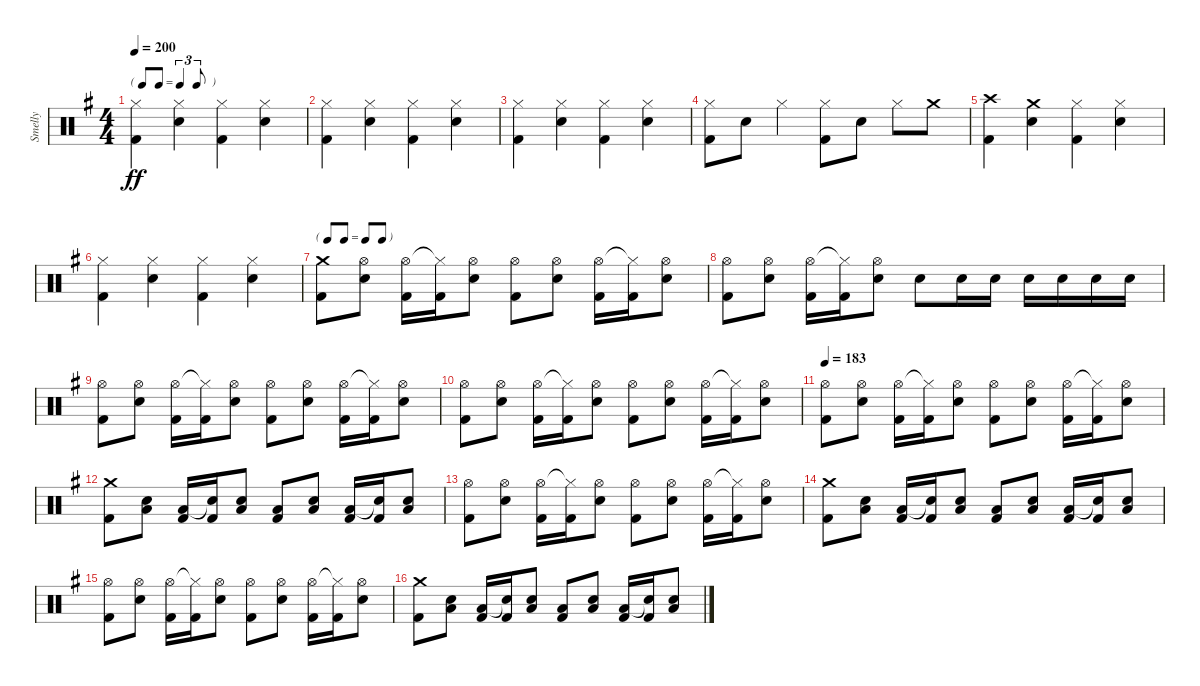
\track ("Smelly" "Smelly") {instrument percussion}
\staff {score}
\articulation defaults
\ts (4 4)
\tf triplet8th
\tempo 200
\clef neutral
\ks eminor
("Hi-Hat (closed)" "Kick (hit) 2").4{dy ff} ("Hi-Hat (closed)" "Electric Snare (hit)").4 ("Hi-Hat (closed)" "Kick (hit) 2").4 ("Hi-Hat (closed)" "Electric Snare (hit)").4 |
("Hi-Hat (closed)" "Kick (hit) 2").4 ("Hi-Hat (closed)" "Electric Snare (hit)").4 ("Hi-Hat (closed)" "Kick (hit) 2").4 ("Hi-Hat (closed)" "Electric Snare (hit)").4 |
("Hi-Hat (closed)" "Kick (hit) 2").4 ("Hi-Hat (closed)" "Electric Snare (hit)").4 ("Hi-Hat (closed)" "Kick (hit) 2").4 ("Hi-Hat (closed)" "Electric Snare (hit)").4 |
("Hi-Hat (closed)" "Kick (hit) 2").8 "Electric Snare (hit)".8 "Hi-Hat (closed)".4 ("Hi-Hat (closed)" "Kick (hit) 2").8 "Electric Snare (hit)".8 "Hi-Hat (closed)".8 "Crash medium (hit)".8 |
("Crash high (hit)" "Kick (hit) 2").4 ("Crash medium (hit)" "Electric Snare (hit)").4 ("Hi-Hat (closed)" "Kick (hit) 2").4 ("Hi-Hat (closed)" "Electric Snare (hit)").4 |
("Hi-Hat (closed)" "Kick (hit) 2").4 ("Hi-Hat (closed)" "Electric Snare (hit)").4 ("Hi-Hat (closed)" "Kick (hit) 2").4 ("Hi-Hat (closed)" "Electric Snare (hit)").4 |
\tf none
("Crash medium (hit)" "Kick (hit) 2").8 ("Hi-Hat (open)" "Electric Snare (hit)").8 ("Hi-Hat (open)" "Kick (hit) 2").16 ("Hi-Hat (closed)"{t} "Kick (hit) 2").16 ("Hi-Hat (open)" "Electric Snare (hit)").8 ("Hi-Hat (open)" "Kick (hit) 2").8 ("Hi-Hat (open)" "Electric Snare (hit)").8 ("Hi-Hat (open)" "Kick (hit) 2").16 ("Hi-Hat (closed)"{t} "Kick (hit) 2").16 ("Hi-Hat (open)" "Electric Snare (hit)").8 |
("Hi-Hat (open)" "Kick (hit) 2").8 ("Hi-Hat (open)" "Electric Snare (hit)").8 ("Hi-Hat (open)" "Kick (hit) 2").16 ("Hi-Hat (closed)"{t} "Kick (hit) 2").16 ("Hi-Hat (open)" "Electric Snare (hit)").8 "Electric Snare (hit)".8 "Electric Snare (hit)".16 "Electric Snare (hit)".16 "Electric Snare (hit)".16 "Electric Snare (hit)".16 "Electric Snare (hit)".16 "Electric Snare (hit)".16 |
("Hi-Hat (open)" "Kick (hit) 2").8 ("Hi-Hat (open)" "Electric Snare (hit)").8 ("Hi-Hat (open)" "Kick (hit) 2").16 ("Hi-Hat (closed)"{t} "Kick (hit) 2").16 ("Hi-Hat (open)" "Electric Snare (hit)").8 ("Hi-Hat (open)" "Kick (hit) 2").8 ("Hi-Hat (open)" "Electric Snare (hit)").8 ("Hi-Hat (open)" "Kick (hit) 2").16 ("Hi-Hat (closed)"{t} "Kick (hit) 2").16 ("Hi-Hat (open)" "Electric Snare (hit)").8 |
("Hi-Hat (open)" "Kick (hit) 2").8 ("Hi-Hat (open)" "Electric Snare (hit)").8 ("Hi-Hat (open)" "Kick (hit) 2").16 ("Hi-Hat (closed)"{t} "Kick (hit) 2").16 ("Hi-Hat (open)" "Electric Snare (hit)").8 ("Hi-Hat (open)" "Kick (hit) 2").8 ("Hi-Hat (open)" "Electric Snare (hit)").8 ("Hi-Hat (open)" "Kick (hit) 2").16 ("Hi-Hat (closed)"{t} "Kick (hit) 2").16 ("Hi-Hat (open)" "Electric Snare (hit)").8 |
\tempo 183
("Hi-Hat (open)" "Kick (hit) 2").8 ("Hi-Hat (open)" "Electric Snare (hit)").8 ("Hi-Hat (open)" "Kick (hit) 2").16 ("Hi-Hat (closed)"{t} "Kick (hit) 2").16 ("Hi-Hat (open)" "Electric Snare (hit)").8 ("Hi-Hat (open)" "Kick (hit) 2").8 ("Hi-Hat (open)" "Electric Snare (hit)").8 ("Hi-Hat (open)" "Kick (hit) 2").16 ("Hi-Hat (closed)"{t} "Kick (hit) 2").16 ("Hi-Hat (open)" "Electric Snare (hit)").8 |
("Crash medium (hit)" "Kick (hit) 2").8 ("Low Floor Tom (hit)" "Electric Snare (hit)").8 ("Low Floor Tom (hit)" "Kick (hit) 2").16 ("Snare (hit)"{t} "Kick (hit) 2").16 ("Low Floor Tom (hit)" "Electric Snare (hit)").8 ("Low Floor Tom (hit)" "Kick (hit) 2").8 ("Low Floor Tom (hit)" "Electric Snare (hit)").8 ("Low Floor Tom (hit)" "Kick (hit) 2").16 ("Snare (hit)"{t} "Kick (hit) 2").16 ("Low Floor Tom (hit)" "Electric Snare (hit)").8 |
("Hi-Hat (open)" "Kick (hit) 2").8 ("Hi-Hat (open)" "Electric Snare (hit)").8 ("Hi-Hat (open)" "Kick (hit) 2").16 ("Hi-Hat (closed)"{t} "Kick (hit) 2").16 ("Hi-Hat (open)" "Electric Snare (hit)").8 ("Hi-Hat (open)" "Kick (hit) 2").8 ("Hi-Hat (open)" "Electric Snare (hit)").8 ("Hi-Hat (open)" "Kick (hit) 2").16 ("Hi-Hat (closed)"{t} "Kick (hit) 2").16 ("Hi-Hat (open)" "Electric Snare (hit)").8 |
("Crash medium (hit)" "Kick (hit) 2").8 ("Low Floor Tom (hit)" "Electric Snare (hit)").8 ("Low Floor Tom (hit)" "Kick (hit) 2").16 ("Snare (hit)"{t} "Kick (hit) 2").16 ("Low Floor Tom (hit)" "Electric Snare (hit)").8 ("Low Floor Tom (hit)" "Kick (hit) 2").8 ("Low Floor Tom (hit)" "Electric Snare (hit)").8 ("Low Floor Tom (hit)" "Kick (hit) 2").16 ("Snare (hit)"{t} "Kick (hit) 2").16 ("Low Floor Tom (hit)" "Electric Snare (hit)").8 |
("Hi-Hat (open)" "Kick (hit) 2").8 ("Hi-Hat (open)" "Electric Snare (hit)").8 ("Hi-Hat (open)" "Kick (hit) 2").16 ("Hi-Hat (closed)"{t} "Kick (hit) 2").16 ("Hi-Hat (open)" "Electric Snare (hit)").8 ("Hi-Hat (open)" "Kick (hit) 2").8 ("Hi-Hat (open)" "Electric Snare (hit)").8 ("Hi-Hat (open)" "Kick (hit) 2").16 ("Hi-Hat (closed)"{t} "Kick (hit) 2").16 ("Hi-Hat (open)" "Electric Snare (hit)").8 |
("Crash medium (hit)" "Kick (hit) 2").8 ("Low Floor Tom (hit)" "Electric Snare (hit)").8 ("Low Floor Tom (hit)" "Kick (hit) 2").16 ("Snare (hit)"{t} "Kick (hit) 2").16 ("Low Floor Tom (hit)" "Electric Snare (hit)").8 ("Low Floor Tom (hit)" "Kick (hit) 2").8 ("Low Floor Tom (hit)" "Electric Snare (hit)").8 ("Low Floor Tom (hit)" "Kick (hit) 2").16 ("Snare (hit)"{t} "Kick (hit) 2").16 ("Low Floor Tom (hit)" "Electric Snare (hit)").8
